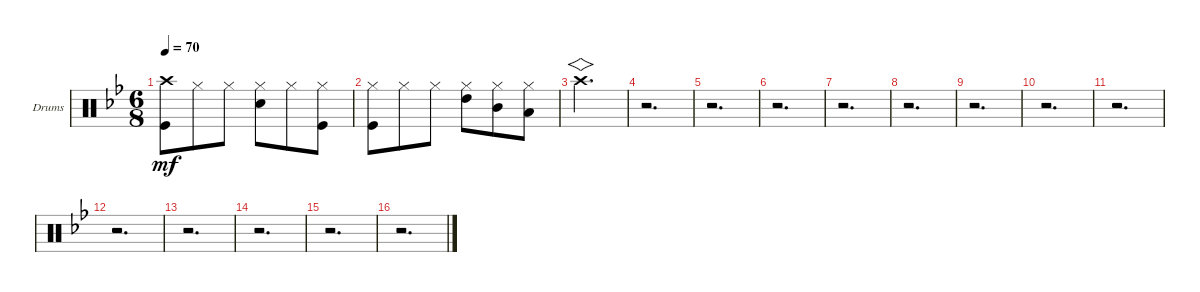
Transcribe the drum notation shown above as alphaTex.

\defaultSystemsLayout 4
\bracketExtendMode groupsimilarinstruments
\firstSystemTrackNameOrientation horizontal
\otherSystemsTrackNameOrientation horizontal
\track ("Drumkit" "Drums") {instrument percussion}
\staff {score}
\articulation defaults
\ts (6 8)
\tempo 70
\clef neutral
\scale
0.333333
\ks gminor
("Kick (hit)" "Crash high (hit)").8{dy mf} "Hi-Hat (closed)".8 "Hi-Hat (closed)".8 ("Hi-Hat (closed)" "Snare (hit) 2").8 "Hi-Hat (closed)".8 ("Hi-Hat (closed)" "Kick (hit)").8 |
\scale
0.333333 ("Hi-Hat (closed)" "Kick (hit)").8 "Hi-Hat (closed)".8 "Hi-Hat (closed)".8 ("Hi-Hat (closed)" "High Tom (hit)").8 ("Hi-Hat (closed)" "Mid Tom (hit)").8 ("Low Tom (hit)" "Hi-Hat (closed)").8 |
\scale
0.333333 "Crash high (hit)".2{vs d} |
\scale
0.333333 r.2{d} |
\scale
0.333333 r.2{d} |
r.2{d} |
\scale
0.333333 r.2{d} |
\scale
0.333333 r.2{d} |
\scale
0.333333 r.2{d} |
\scale
0.333333 r.2{d} |
\scale
0.333333 r.2{d} |
r.2{d} |
r.2{d} |
r.2{d} |
\scale
0.333333 r.2{d} |
\scale
0.333333 r.2{d}
